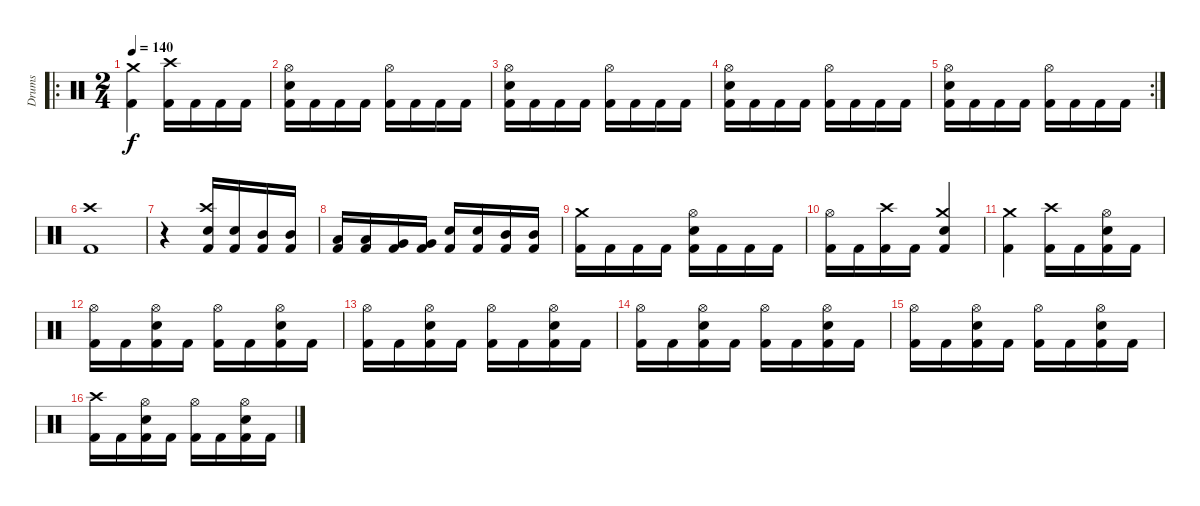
\track ("Drums" "Drums") {instrument percussion}
\staff {score}
\articulation defaults
\ro
\ts (2 4)
\tempo 140
\clef neutral
\ks c
("Kick (hit) 2" "Crash medium (hit)").4{dy f} ("Kick (hit) 2" "Crash high (hit)").16 "Kick (hit) 2".16 "Kick (hit) 2".16 "Kick (hit) 2".16 |
("Kick (hit) 2" "Electric Snare (hit)" "Hi-Hat (open)").16 "Kick (hit) 2".16 "Kick (hit) 2".16 "Kick (hit) 2".16 ("Kick (hit) 2" "Hi-Hat (open)").16 "Kick (hit) 2".16 "Kick (hit) 2".16 "Kick (hit) 2".16 |
("Kick (hit) 2" "Electric Snare (hit)" "Hi-Hat (open)").16 "Kick (hit) 2".16 "Kick (hit) 2".16 "Kick (hit) 2".16 ("Kick (hit) 2" "Hi-Hat (open)").16 "Kick (hit) 2".16 "Kick (hit) 2".16 "Kick (hit) 2".16 |
("Kick (hit) 2" "Electric Snare (hit)" "Hi-Hat (open)").16 "Kick (hit) 2".16 "Kick (hit) 2".16 "Kick (hit) 2".16 ("Kick (hit) 2" "Hi-Hat (open)").16 "Kick (hit) 2".16 "Kick (hit) 2".16 "Kick (hit) 2".16 |
\rc 2
("Kick (hit) 2" "Electric Snare (hit)" "Hi-Hat (open)").16 "Kick (hit) 2".16 "Kick (hit) 2".16 "Kick (hit) 2".16 ("Kick (hit) 2" "Hi-Hat (open)").16 "Kick (hit) 2".16 "Kick (hit) 2".16 "Kick (hit) 2".16 |
("Kick (hit) 2" "Crash high (hit)").1 |
r.4 ("Kick (hit) 2" "Electric Snare (hit)" "Crash high (hit)").16 ("Kick (hit) 2" "Electric Snare (hit)").16 ("Kick (hit) 2" "Mid Tom (hit)").16 ("Kick (hit) 2" "Mid Tom (hit)").16 |
("Kick (hit) 2" "Low Tom (hit)").16 ("Kick (hit) 2" "Low Tom (hit)").16 ("Kick (hit) 2" "Very Low Tom (hit)").16 ("Kick (hit) 2" "Very Low Tom (hit)").16 ("Kick (hit) 2" "Electric Snare (hit)").16 ("Kick (hit) 2" "Electric Snare (hit)").16 ("Kick (hit) 2" "Mid Tom (hit)").16 ("Kick (hit) 2" "Mid Tom (hit)").16 |
("Kick (hit) 2" "Crash medium (hit)").16 "Kick (hit) 2".16 "Kick (hit) 2".16 "Kick (hit) 2".16 ("Kick (hit) 2" "Electric Snare (hit)" "Hi-Hat (open)").16 "Kick (hit) 2".16 "Kick (hit) 2".16 "Kick (hit) 2".16 |
("Kick (hit) 2" "Hi-Hat (open)").16 "Kick (hit) 2".16 ("Kick (hit) 2" "Crash high (hit)").16 "Kick (hit) 2".16 ("Kick (hit) 2" "Electric Snare (hit)" "Crash medium (hit)").4 |
("Kick (hit) 2" "Crash medium (hit)").4 ("Kick (hit) 2" "Crash high (hit)").16 "Kick (hit) 2".16 ("Kick (hit) 2" "Electric Snare (hit)" "Hi-Hat (open)").16 "Kick (hit) 2".16 |
("Kick (hit) 2" "Hi-Hat (open)").16 "Kick (hit) 2".16 ("Kick (hit) 2" "Electric Snare (hit)" "Hi-Hat (open)").16 "Kick (hit) 2".16 ("Kick (hit) 2" "Hi-Hat (open)").16 "Kick (hit) 2".16 ("Kick (hit) 2" "Electric Snare (hit)" "Hi-Hat (open)").16 "Kick (hit) 2".16 |
("Kick (hit) 2" "Hi-Hat (open)").16 "Kick (hit) 2".16 ("Kick (hit) 2" "Electric Snare (hit)" "Hi-Hat (open)").16 "Kick (hit) 2".16 ("Kick (hit) 2" "Hi-Hat (open)").16 "Kick (hit) 2".16 ("Kick (hit) 2" "Electric Snare (hit)" "Hi-Hat (open)").16 "Kick (hit) 2".16 |
("Kick (hit) 2" "Hi-Hat (open)").16 "Kick (hit) 2".16 ("Kick (hit) 2" "Electric Snare (hit)" "Hi-Hat (open)").16 "Kick (hit) 2".16 ("Kick (hit) 2" "Hi-Hat (open)").16 "Kick (hit) 2".16 ("Kick (hit) 2" "Electric Snare (hit)" "Hi-Hat (open)").16 "Kick (hit) 2".16 |
("Kick (hit) 2" "Hi-Hat (open)").16 "Kick (hit) 2".16 ("Kick (hit) 2" "Electric Snare (hit)" "Hi-Hat (open)").16 "Kick (hit) 2".16 ("Kick (hit) 2" "Hi-Hat (open)").16 "Kick (hit) 2".16 ("Kick (hit) 2" "Electric Snare (hit)" "Hi-Hat (open)").16 "Kick (hit) 2".16 |
("Kick (hit) 2" "Crash high (hit)").16 "Kick (hit) 2".16 ("Kick (hit) 2" "Electric Snare (hit)" "Hi-Hat (open)").16 "Kick (hit) 2".16 ("Kick (hit) 2" "Hi-Hat (open)").16 "Kick (hit) 2".16 ("Kick (hit) 2" "Electric Snare (hit)" "Hi-Hat (open)").16 "Kick (hit) 2".16
